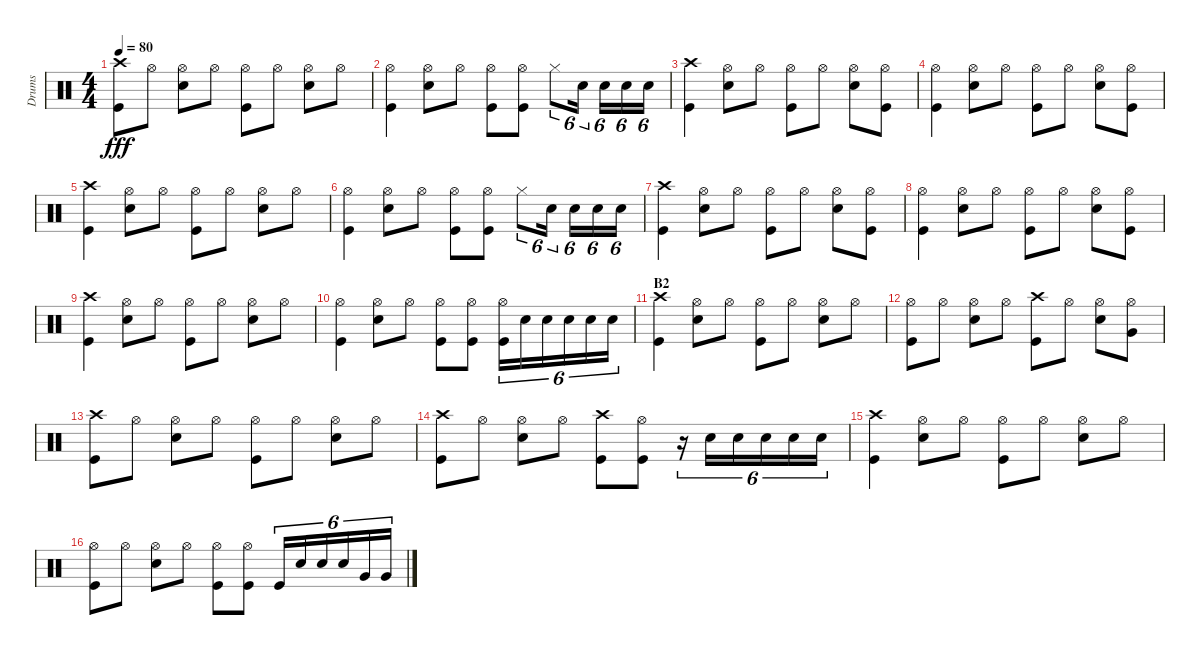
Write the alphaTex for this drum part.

\track ("Drums" "Drums") {instrument percussion}
\staff {score}
\articulation defaults
\ts (4 4)
\tempo 80
\clef neutral
\ks c
("Crash high (hit)" "Kick (hit)").8{dy fff} "Hi-Hat (open)".8 ("Hi-Hat (open)" "Snare (hit) 2").8 "Hi-Hat (open)".8 ("Hi-Hat (open)" "Kick (hit)").8 "Hi-Hat (open)".8 ("Hi-Hat (open)" "Snare (hit) 2").8 "Hi-Hat (open)".8 |
("Hi-Hat (open)" "Kick (hit)").4 ("Hi-Hat (open)" "Snare (hit) 2").8 "Hi-Hat (open)".8 ("Hi-Hat (open)" "Kick (hit)").8 ("Hi-Hat (open)" "Kick (hit)").8 "Hi-Hat (closed)".8{tu (6 4)} "Snare (hit) 2".16{tu (6 4)} "Snare (hit) 2".16{tu (6 4)} "Snare (hit) 2".16{tu (6 4)} "Snare (hit) 2".16{tu (6 4)} |
("Crash high (hit)" "Kick (hit)").4 ("Hi-Hat (open)" "Snare (hit) 2").8 "Hi-Hat (open)".8 ("Hi-Hat (open)" "Kick (hit)").8 "Hi-Hat (open)".8 ("Hi-Hat (open)" "Snare (hit) 2").8 ("Hi-Hat (open)" "Kick (hit)").8 |
("Hi-Hat (open)" "Kick (hit)").4 ("Hi-Hat (open)" "Snare (hit) 2").8 "Hi-Hat (open)".8 ("Hi-Hat (open)" "Kick (hit)").8 "Hi-Hat (open)".8 ("Hi-Hat (open)" "Snare (hit) 2").8 ("Hi-Hat (open)" "Kick (hit)").8 |
("Crash high (hit)" "Kick (hit)").4 ("Hi-Hat (open)" "Snare (hit) 2").8 "Hi-Hat (open)".8 ("Hi-Hat (open)" "Kick (hit)").8 "Hi-Hat (open)".8 ("Hi-Hat (open)" "Snare (hit) 2").8 "Hi-Hat (open)".8 |
("Hi-Hat (open)" "Kick (hit)").4 ("Hi-Hat (open)" "Snare (hit) 2").8 "Hi-Hat (open)".8 ("Hi-Hat (open)" "Kick (hit)").8 ("Hi-Hat (open)" "Kick (hit)").8 "Hi-Hat (closed)".8{tu (6 4)} "Snare (hit) 2".16{tu (6 4)} "Snare (hit) 2".16{tu (6 4)} "Snare (hit) 2".16{tu (6 4)} "Snare (hit) 2".16{tu (6 4)} |
("Crash high (hit)" "Kick (hit)").4 ("Hi-Hat (open)" "Snare (hit) 2").8 "Hi-Hat (open)".8 ("Hi-Hat (open)" "Kick (hit)").8 "Hi-Hat (open)".8 ("Hi-Hat (open)" "Snare (hit) 2").8 ("Hi-Hat (open)" "Kick (hit)").8 |
("Hi-Hat (open)" "Kick (hit)").4 ("Hi-Hat (open)" "Snare (hit) 2").8 "Hi-Hat (open)".8 ("Hi-Hat (open)" "Kick (hit)").8 "Hi-Hat (open)".8 ("Hi-Hat (open)" "Snare (hit) 2").8 ("Hi-Hat (open)" "Kick (hit)").8 |
("Crash high (hit)" "Kick (hit)").4 ("Hi-Hat (open)" "Snare (hit) 2").8 "Hi-Hat (open)".8 ("Hi-Hat (open)" "Kick (hit)").8 "Hi-Hat (open)".8 ("Hi-Hat (open)" "Snare (hit) 2").8 "Hi-Hat (open)".8 |
("Hi-Hat (open)" "Kick (hit)").4 ("Hi-Hat (open)" "Snare (hit) 2").8 "Hi-Hat (open)".8 ("Hi-Hat (open)" "Kick (hit)").8 ("Hi-Hat (open)" "Kick (hit)").8 ("Hi-Hat (open)" "Kick (hit)").16{tu (6 4)} "Snare (hit) 2".16{tu (6 4)} "Snare (hit) 2".16{tu (6 4)} "Snare (hit) 2".16{tu (6 4)} "Snare (hit) 2".16{tu (6 4)} "Snare (hit) 2".16{tu (6 4)} |
\section ("" "B2")
("Crash high (hit)" "Kick (hit)").4 ("Hi-Hat (open)" "Snare (hit) 2").8 "Hi-Hat (open)".8 ("Hi-Hat (open)" "Kick (hit)").8 "Hi-Hat (open)".8 ("Hi-Hat (open)" "Snare (hit) 2").8 "Hi-Hat (open)".8 |
("Hi-Hat (open)" "Kick (hit)").8 "Hi-Hat (open)".8 ("Hi-Hat (open)" "Snare (hit) 2").8 "Hi-Hat (open)".8 ("Crash high (hit)" "Kick (hit)").8 "Hi-Hat (open)".8 ("Hi-Hat (open)" "Snare (hit) 2").8 ("Hi-Hat (open)" "Very Low Tom (hit)").8 |
("Crash high (hit)" "Kick (hit)").8 "Hi-Hat (open)".8 ("Hi-Hat (open)" "Snare (hit) 2").8 "Hi-Hat (open)".8 ("Hi-Hat (open)" "Kick (hit)").8 "Hi-Hat (open)".8 ("Hi-Hat (open)" "Snare (hit) 2").8 "Hi-Hat (open)".8 |
("Crash high (hit)" "Kick (hit)").8 "Hi-Hat (open)".8 ("Hi-Hat (open)" "Snare (hit) 2").8 "Hi-Hat (open)".8 ("Crash high (hit)" "Kick (hit)").8 ("Hi-Hat (open)" "Kick (hit)").8 r.16{tu (6 4)} "Snare (hit) 2".16{tu (6 4)} "Snare (hit) 2".16{tu (6 4)} "Snare (hit) 2".16{tu (6 4)} "Snare (hit) 2".16{tu (6 4)} "Snare (hit) 2".16{tu (6 4)} |
("Crash high (hit)" "Kick (hit)").4 ("Hi-Hat (open)" "Snare (hit) 2").8 "Hi-Hat (open)".8 ("Hi-Hat (open)" "Kick (hit)").8 "Hi-Hat (open)".8 ("Hi-Hat (open)" "Snare (hit) 2").8 "Hi-Hat (open)".8 |
("Hi-Hat (open)" "Kick (hit)").8 "Hi-Hat (open)".8 ("Hi-Hat (open)" "Snare (hit) 2").8 "Hi-Hat (open)".8 ("Hi-Hat (open)" "Kick (hit)").8 ("Hi-Hat (open)" "Kick (hit)").8 "Kick (hit)".16{tu (6 4)} "Snare (hit) 2".16{tu (6 4)} "Snare (hit) 2".16{tu (6 4)} "Snare (hit) 2".16{tu (6 4)} "Very Low Tom (hit)".16{tu (6 4)} "Very Low Tom (hit)".16{tu (6 4)}
